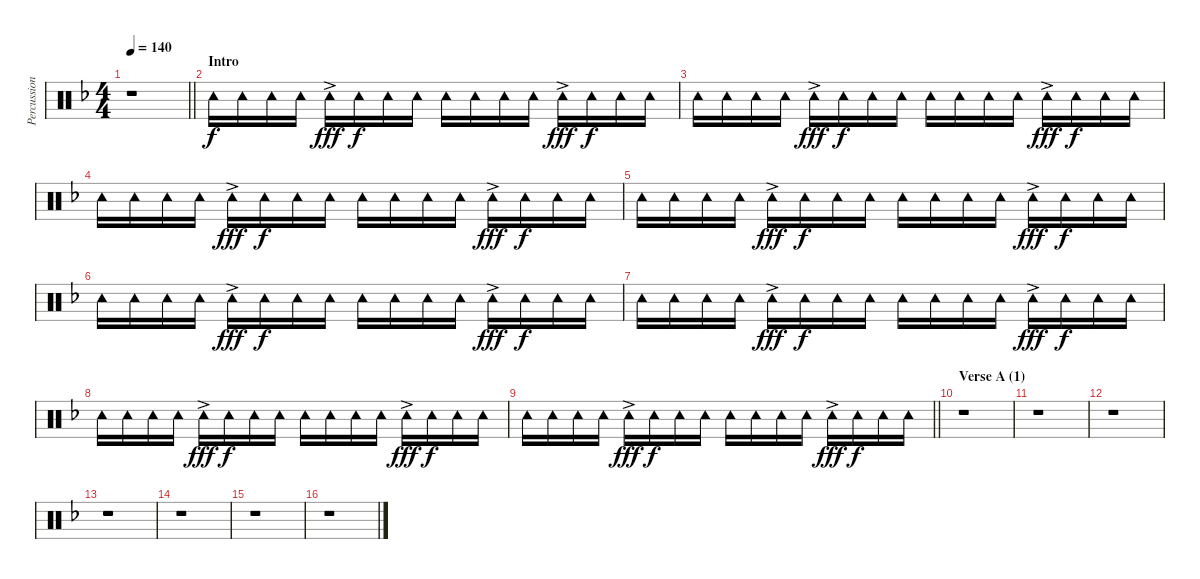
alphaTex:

\track ("Percussion" "Percussion") {instrument percussion}
\staff {score}
\articulation defaults
\ts (4 4)
\tempo 140
\clef neutral
\barLineRight lightlight
\ks f
r.1{dy f} |
\section ("" "Intro")
"Tambourine (hit)".16 "Tambourine (hit)".16 "Tambourine (hit)".16 "Tambourine (hit)".16 "Tambourine (hit)"{ac}.16{dy fff} "Tambourine (hit)".16{dy f} "Tambourine (hit)".16 "Tambourine (hit)".16 "Tambourine (hit)".16 "Tambourine (hit)".16 "Tambourine (hit)".16 "Tambourine (hit)".16 "Tambourine (hit)"{ac}.16{dy fff} "Tambourine (hit)".16{dy f} "Tambourine (hit)".16 "Tambourine (hit)".16 |
"Tambourine (hit)".16 "Tambourine (hit)".16 "Tambourine (hit)".16 "Tambourine (hit)".16 "Tambourine (hit)"{ac}.16{dy fff} "Tambourine (hit)".16{dy f} "Tambourine (hit)".16 "Tambourine (hit)".16 "Tambourine (hit)".16 "Tambourine (hit)".16 "Tambourine (hit)".16 "Tambourine (hit)".16 "Tambourine (hit)"{ac}.16{dy fff} "Tambourine (hit)".16{dy f} "Tambourine (hit)".16 "Tambourine (hit)".16 |
"Tambourine (hit)".16 "Tambourine (hit)".16 "Tambourine (hit)".16 "Tambourine (hit)".16 "Tambourine (hit)"{ac}.16{dy fff} "Tambourine (hit)".16{dy f} "Tambourine (hit)".16 "Tambourine (hit)".16 "Tambourine (hit)".16 "Tambourine (hit)".16 "Tambourine (hit)".16 "Tambourine (hit)".16 "Tambourine (hit)"{ac}.16{dy fff} "Tambourine (hit)".16{dy f} "Tambourine (hit)".16 "Tambourine (hit)".16 |
"Tambourine (hit)".16 "Tambourine (hit)".16 "Tambourine (hit)".16 "Tambourine (hit)".16 "Tambourine (hit)"{ac}.16{dy fff} "Tambourine (hit)".16{dy f} "Tambourine (hit)".16 "Tambourine (hit)".16 "Tambourine (hit)".16 "Tambourine (hit)".16 "Tambourine (hit)".16 "Tambourine (hit)".16 "Tambourine (hit)"{ac}.16{dy fff} "Tambourine (hit)".16{dy f} "Tambourine (hit)".16 "Tambourine (hit)".16 |
"Tambourine (hit)".16 "Tambourine (hit)".16 "Tambourine (hit)".16 "Tambourine (hit)".16 "Tambourine (hit)"{ac}.16{dy fff} "Tambourine (hit)".16{dy f} "Tambourine (hit)".16 "Tambourine (hit)".16 "Tambourine (hit)".16 "Tambourine (hit)".16 "Tambourine (hit)".16 "Tambourine (hit)".16 "Tambourine (hit)"{ac}.16{dy fff} "Tambourine (hit)".16{dy f} "Tambourine (hit)".16 "Tambourine (hit)".16 |
"Tambourine (hit)".16 "Tambourine (hit)".16 "Tambourine (hit)".16 "Tambourine (hit)".16 "Tambourine (hit)"{ac}.16{dy fff} "Tambourine (hit)".16{dy f} "Tambourine (hit)".16 "Tambourine (hit)".16 "Tambourine (hit)".16 "Tambourine (hit)".16 "Tambourine (hit)".16 "Tambourine (hit)".16 "Tambourine (hit)"{ac}.16{dy fff} "Tambourine (hit)".16{dy f} "Tambourine (hit)".16 "Tambourine (hit)".16 |
"Tambourine (hit)".16 "Tambourine (hit)".16 "Tambourine (hit)".16 "Tambourine (hit)".16 "Tambourine (hit)"{ac}.16{dy fff} "Tambourine (hit)".16{dy f} "Tambourine (hit)".16 "Tambourine (hit)".16 "Tambourine (hit)".16 "Tambourine (hit)".16 "Tambourine (hit)".16 "Tambourine (hit)".16 "Tambourine (hit)"{ac}.16{dy fff} "Tambourine (hit)".16{dy f} "Tambourine (hit)".16 "Tambourine (hit)".16 |
\barLineRight lightlight "Tambourine (hit)".16 "Tambourine (hit)".16 "Tambourine (hit)".16 "Tambourine (hit)".16 "Tambourine (hit)"{ac}.16{dy fff} "Tambourine (hit)".16{dy f} "Tambourine (hit)".16 "Tambourine (hit)".16 "Tambourine (hit)".16 "Tambourine (hit)".16 "Tambourine (hit)".16 "Tambourine (hit)".16 "Tambourine (hit)"{ac}.16{dy fff} "Tambourine (hit)".16{dy f} "Tambourine (hit)".16 "Tambourine (hit)".16
|
\section ("" "Verse A (1)")
r.1 |
r.1 |
r.1 |
r.1 |
r.1 |
r.1 |
r.1
